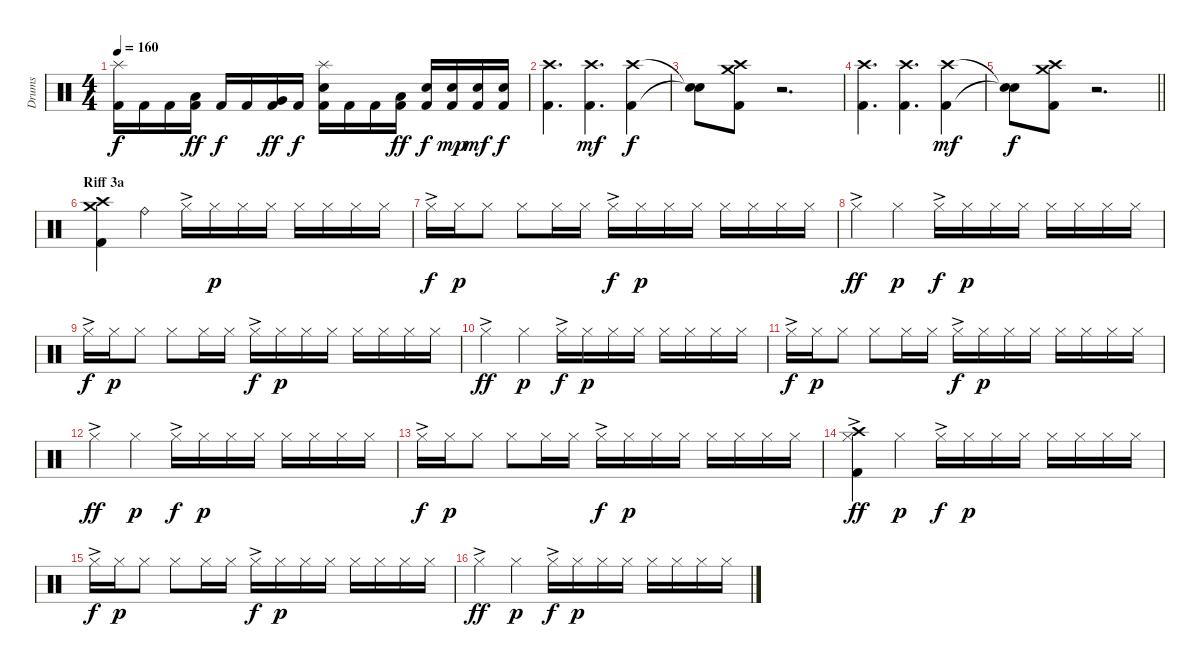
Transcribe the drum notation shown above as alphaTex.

\track ("Drums" "Drums") {instrument percussion}
\staff {score}
\articulation defaults
\ts (4 4)
\tempo 160
\clef neutral
\ks c
("Splash (hit)" "Kick (hit) 2").16{dy f} "Kick (hit) 2".16 "Kick (hit) 2".16 ("Low Tom (hit)" "Kick (hit) 2").16{dy ff} "Kick (hit) 2".16{dy f} "Kick (hit) 2".16 ("Very Low Tom (hit)" "Kick (hit) 2").16{dy ff} "Kick (hit) 2".16{dy f} ("Splash (hit)" "Snare (hit) 2" "Kick (hit) 2").16 "Kick (hit) 2".16 "Kick (hit) 2".16 ("Low Tom (hit)" "Kick (hit) 2").16{dy ff} ("Snare (hit) 2" "Kick (hit) 2").16{dy f} ("Snare (hit) 2" "Kick (hit) 2").16{dy mp} ("Snare (hit) 2" "Kick (hit) 2").16{dy mf} ("Snare (hit) 2" "Kick (hit) 2").16{dy f} |
("Crash high (hit)" "Kick (hit) 2").4{d} ("Crash high (hit)" "Kick (hit) 2").4{d dy mf} ("Crash high (hit)" "Kick (hit) 2").4{dy f} |
("Snare (hit)"{t} "Snare (hit)"{t}).8 ("Crash high (hit)" "Crash medium (hit)" "Kick (hit) 2").8 r.2{d} |
("Crash high (hit)" "Kick (hit) 2").4{d} ("Crash high (hit)" "Kick (hit) 2").4{d} ("Crash high (hit)" "Kick (hit) 2").4{dy mf} |
\barLineRight lightlight
("Snare (hit)"{t} "Snare (hit)"{t}).8{dy f} ("Crash high (hit)" "Crash medium (hit)" "Kick (hit) 2").8 r.2{d} |
\section ("" "Riff 3a")
("Crash medium (hit)" "Crash high (hit)" "Kick (hit) 2").4 "Ride (bell)".4 "Hi-Hat (closed)"{ac}.16 "Hi-Hat (closed)".16{dy p} "Hi-Hat (closed)".16 "Hi-Hat (closed)".16 "Hi-Hat (closed)".16 "Hi-Hat (closed)".16 "Hi-Hat (closed)".16 "Hi-Hat (closed)".16 |
"Hi-Hat (closed)"{ac}.16{dy f} "Hi-Hat (closed)".16{dy p} "Hi-Hat (closed)".8 "Hi-Hat (closed)".8 "Hi-Hat (closed)".16 "Hi-Hat (closed)".16 "Hi-Hat (closed)"{ac}.16{dy f} "Hi-Hat (closed)".16{dy p} "Hi-Hat (closed)".16 "Hi-Hat (closed)".16 "Hi-Hat (closed)".16 "Hi-Hat (closed)".16 "Hi-Hat (closed)".16 "Hi-Hat (closed)".16 |
"Hi-Hat (closed)"{ac}.4{dy ff} "Hi-Hat (closed)".4{dy p} "Hi-Hat (closed)"{ac}.16{dy f} "Hi-Hat (closed)".16{dy p} "Hi-Hat (closed)".16 "Hi-Hat (closed)".16 "Hi-Hat (closed)".16 "Hi-Hat (closed)".16 "Hi-Hat (closed)".16 "Hi-Hat (closed)".16 |
"Hi-Hat (closed)"{ac}.16{dy f} "Hi-Hat (closed)".16{dy p} "Hi-Hat (closed)".8 "Hi-Hat (closed)".8 "Hi-Hat (closed)".16 "Hi-Hat (closed)".16 "Hi-Hat (closed)"{ac}.16{dy f} "Hi-Hat (closed)".16{dy p} "Hi-Hat (closed)".16 "Hi-Hat (closed)".16 "Hi-Hat (closed)".16 "Hi-Hat (closed)".16 "Hi-Hat (closed)".16 "Hi-Hat (closed)".16 |
"Hi-Hat (closed)"{ac}.4{dy ff} "Hi-Hat (closed)".4{dy p} "Hi-Hat (closed)"{ac}.16{dy f} "Hi-Hat (closed)".16{dy p} "Hi-Hat (closed)".16 "Hi-Hat (closed)".16 "Hi-Hat (closed)".16 "Hi-Hat (closed)".16 "Hi-Hat (closed)".16 "Hi-Hat (closed)".16 |
"Hi-Hat (closed)"{ac}.16{dy f} "Hi-Hat (closed)".16{dy p} "Hi-Hat (closed)".8 "Hi-Hat (closed)".8 "Hi-Hat (closed)".16 "Hi-Hat (closed)".16 "Hi-Hat (closed)"{ac}.16{dy f} "Hi-Hat (closed)".16{dy p} "Hi-Hat (closed)".16 "Hi-Hat (closed)".16 "Hi-Hat (closed)".16 "Hi-Hat (closed)".16 "Hi-Hat (closed)".16 "Hi-Hat (closed)".16 |
"Hi-Hat (closed)"{ac}.4{dy ff} "Hi-Hat (closed)".4{dy p} "Hi-Hat (closed)"{ac}.16{dy f} "Hi-Hat (closed)".16{dy p} "Hi-Hat (closed)".16 "Hi-Hat (closed)".16 "Hi-Hat (closed)".16 "Hi-Hat (closed)".16 "Hi-Hat (closed)".16 "Hi-Hat (closed)".16 |
"Hi-Hat (closed)"{ac}.16{dy f} "Hi-Hat (closed)".16{dy p} "Hi-Hat (closed)".8 "Hi-Hat (closed)".8 "Hi-Hat (closed)".16 "Hi-Hat (closed)".16 "Hi-Hat (closed)"{ac}.16{dy f} "Hi-Hat (closed)".16{dy p} "Hi-Hat (closed)".16 "Hi-Hat (closed)".16 "Hi-Hat (closed)".16 "Hi-Hat (closed)".16 "Hi-Hat (closed)".16 "Hi-Hat (closed)".16 |
("Crash high (hit)" "Hi-Hat (closed)"{ac} "Kick (hit) 2").4{dy ff} "Hi-Hat (closed)".4{dy p} "Hi-Hat (closed)"{ac}.16{dy f} "Hi-Hat (closed)".16{dy p} "Hi-Hat (closed)".16 "Hi-Hat (closed)".16 "Hi-Hat (closed)".16 "Hi-Hat (closed)".16 "Hi-Hat (closed)".16 "Hi-Hat (closed)".16 |
"Hi-Hat (closed)"{ac}.16{dy f} "Hi-Hat (closed)".16{dy p} "Hi-Hat (closed)".8 "Hi-Hat (closed)".8 "Hi-Hat (closed)".16 "Hi-Hat (closed)".16 "Hi-Hat (closed)"{ac}.16{dy f} "Hi-Hat (closed)".16{dy p} "Hi-Hat (closed)".16 "Hi-Hat (closed)".16 "Hi-Hat (closed)".16 "Hi-Hat (closed)".16 "Hi-Hat (closed)".16 "Hi-Hat (closed)".16 |
"Hi-Hat (closed)"{ac}.4{dy ff} "Hi-Hat (closed)".4{dy p} "Hi-Hat (closed)"{ac}.16{dy f} "Hi-Hat (closed)".16{dy p} "Hi-Hat (closed)".16 "Hi-Hat (closed)".16 "Hi-Hat (closed)".16 "Hi-Hat (closed)".16 "Hi-Hat (closed)".16 "Hi-Hat (closed)".16
